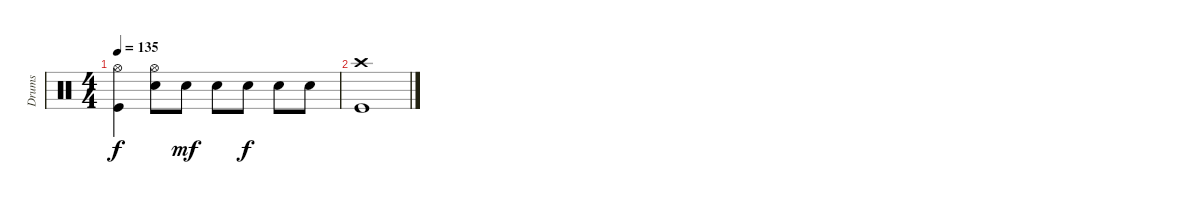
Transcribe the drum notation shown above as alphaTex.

\track ("Drums" "Drums") {instrument percussion}
\staff {score}
\articulation defaults
\ts (4 4)
\tempo 135
\clef neutral
\ks c
("Hi-Hat (open)" "Kick (hit)").4{dy f} ("Hi-Hat (open)" "Snare (hit) 2").8 "Snare (hit) 2".8{dy mf} "Snare (hit) 2".8 "Snare (hit) 2".8{dy f} "Snare (hit) 2".8 "Snare (hit) 2".8 |
("Crash high (hit)" "Kick (hit)").1
